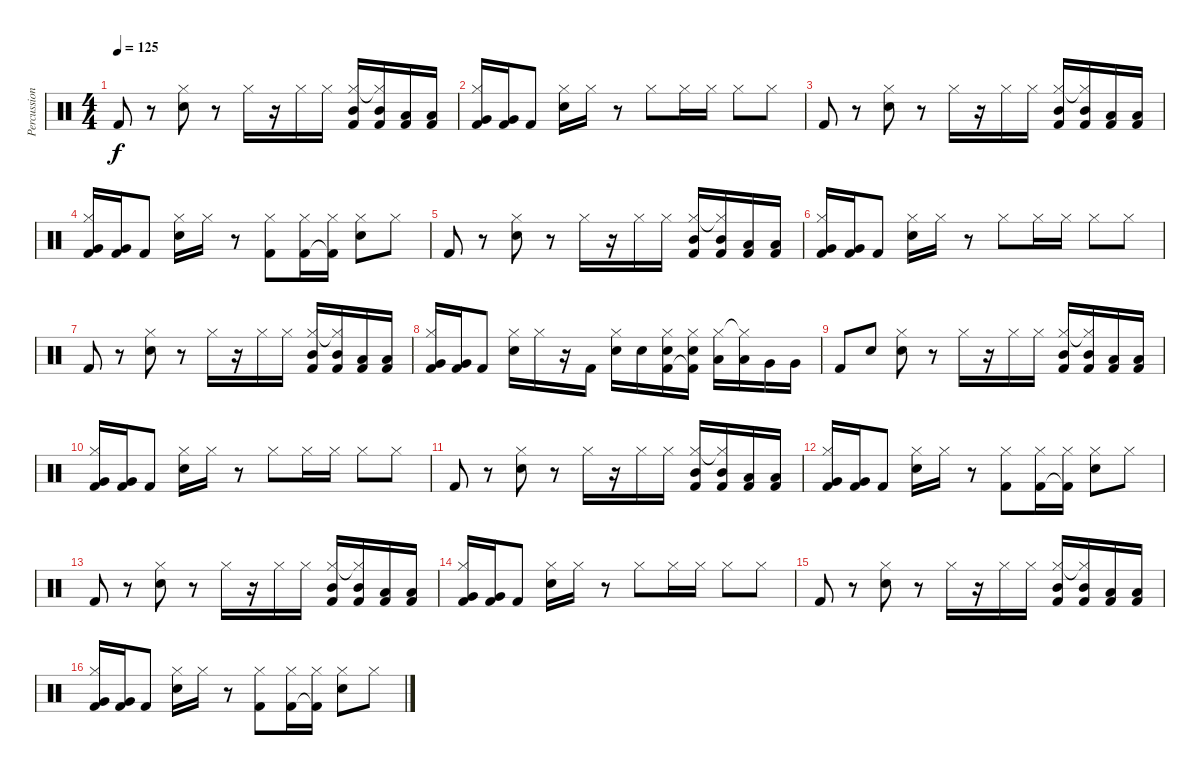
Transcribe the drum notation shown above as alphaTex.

\track ("Percussion" "Percussion") {instrument percussion}
\staff {score}
\articulation defaults
\ts (4 4)
\tempo 125
\clef neutral
\ks c "Kick (hit) 2".8{dy f}
r.8 ("Hi-Hat (closed)" "Electric Snare (hit)").8 r.8 "Hi-Hat (closed)".16 r.16 "Hi-Hat (closed)".16 "Hi-Hat (closed)".16 ("Hi-Hat (closed)" "Mid Tom (hit)" "Kick (hit) 2").16 ("Hi-Hat (closed)"{t} "Mid Tom (hit)" "Kick (hit) 2").16 ("Low Tom (hit)" "Kick (hit) 2").16 ("Low Tom (hit)" "Kick (hit) 2").16 |
("Hi-Hat (closed)" "Very Low Tom (hit)" "Kick (hit) 2").16 ("Very Low Tom (hit)" "Kick (hit) 2").16 "Kick (hit) 2".8 ("Hi-Hat (closed)" "Electric Snare (hit)").16 "Hi-Hat (closed)".16 r.8 "Hi-Hat (closed)".8 "Hi-Hat (closed)".16 "Hi-Hat (closed)".16 "Hi-Hat (closed)".8 "Hi-Hat (closed)".8 |
"Kick (hit) 2".8 r.8 ("Hi-Hat (closed)" "Electric Snare (hit)").8 r.8 "Hi-Hat (closed)".16 r.16 "Hi-Hat (closed)".16 "Hi-Hat (closed)".16 ("Hi-Hat (closed)" "Mid Tom (hit)" "Kick (hit) 2").16 ("Hi-Hat (closed)"{t} "Mid Tom (hit)" "Kick (hit) 2").16 ("Low Tom (hit)" "Kick (hit) 2").16 ("Low Tom (hit)" "Kick (hit) 2").16 |
("Hi-Hat (closed)" "Very Low Tom (hit)" "Kick (hit) 2").16 ("Very Low Tom (hit)" "Kick (hit) 2").16 "Kick (hit) 2".8 ("Hi-Hat (closed)" "Electric Snare (hit)").16 "Hi-Hat (closed)".16 r.8 ("Hi-Hat (closed)" "Kick (hit) 2").8 ("Hi-Hat (closed)" "Kick (hit) 2").16 ("Hi-Hat (closed)" "Kick (hit) 2"{t}).16 ("Hi-Hat (closed)" "Electric Snare (hit)").8 "Hi-Hat (closed)".8 |
"Kick (hit) 2".8 r.8 ("Hi-Hat (closed)" "Electric Snare (hit)").8 r.8 "Hi-Hat (closed)".16 r.16 "Hi-Hat (closed)".16 "Hi-Hat (closed)".16 ("Hi-Hat (closed)" "Mid Tom (hit)" "Kick (hit) 2").16 ("Hi-Hat (closed)"{t} "Mid Tom (hit)" "Kick (hit) 2").16 ("Low Tom (hit)" "Kick (hit) 2").16 ("Low Tom (hit)" "Kick (hit) 2").16 |
("Hi-Hat (closed)" "Very Low Tom (hit)" "Kick (hit) 2").16 ("Very Low Tom (hit)" "Kick (hit) 2").16 "Kick (hit) 2".8 ("Hi-Hat (closed)" "Electric Snare (hit)").16 "Hi-Hat (closed)".16 r.8 "Hi-Hat (closed)".8 "Hi-Hat (closed)".16 "Hi-Hat (closed)".16 "Hi-Hat (closed)".8 "Hi-Hat (closed)".8 |
"Kick (hit) 2".8 r.8 ("Hi-Hat (closed)" "Electric Snare (hit)").8 r.8 "Hi-Hat (closed)".16 r.16 "Hi-Hat (closed)".16 "Hi-Hat (closed)".16 ("Hi-Hat (closed)" "Mid Tom (hit)" "Kick (hit) 2").16 ("Hi-Hat (closed)"{t} "Mid Tom (hit)" "Kick (hit) 2").16 ("Low Tom (hit)" "Kick (hit) 2").16 ("Low Tom (hit)" "Kick (hit) 2").16 |
("Hi-Hat (closed)" "Very Low Tom (hit)" "Kick (hit) 2").16 ("Very Low Tom (hit)" "Kick (hit) 2").16 "Kick (hit) 2".8 ("Hi-Hat (closed)" "Electric Snare (hit)").16 "Hi-Hat (closed)".16 r.16 "Kick (hit) 2".16 ("Hi-Hat (closed)" "Snare (hit) 2").16 "Snare (hit) 2".16 ("Hi-Hat (closed)" "Snare (hit) 2" "Kick (hit) 2").16 ("Hi-Hat (closed)" "Snare (hit) 2" "Kick (hit) 2"{t}).16 ("Hi-Hat (closed)" "Low Tom (hit)").16 ("Hi-Hat (closed)"{t} "Low Tom (hit)").16 "Very Low Tom (hit)".16 "Very Low Tom (hit)".16 |
"Kick (hit) 2".8 "Electric Snare (hit)".8 ("Hi-Hat (closed)" "Electric Snare (hit)").8 r.8 "Hi-Hat (closed)".16 r.16 "Hi-Hat (closed)".16 "Hi-Hat (closed)".16 ("Hi-Hat (closed)" "Mid Tom (hit)" "Kick (hit) 2").16 ("Hi-Hat (closed)"{t} "Mid Tom (hit)" "Kick (hit) 2").16 ("Low Tom (hit)" "Kick (hit) 2").16 ("Low Tom (hit)" "Kick (hit) 2").16 |
("Hi-Hat (closed)" "Very Low Tom (hit)" "Kick (hit) 2").16 ("Very Low Tom (hit)" "Kick (hit) 2").16 "Kick (hit) 2".8 ("Hi-Hat (closed)" "Electric Snare (hit)").16 "Hi-Hat (closed)".16 r.8 "Hi-Hat (closed)".8 "Hi-Hat (closed)".16 "Hi-Hat (closed)".16 "Hi-Hat (closed)".8 "Hi-Hat (closed)".8 |
"Kick (hit) 2".8 r.8 ("Hi-Hat (closed)" "Electric Snare (hit)").8 r.8 "Hi-Hat (closed)".16 r.16 "Hi-Hat (closed)".16 "Hi-Hat (closed)".16 ("Hi-Hat (closed)" "Mid Tom (hit)" "Kick (hit) 2").16 ("Hi-Hat (closed)"{t} "Mid Tom (hit)" "Kick (hit) 2").16 ("Low Tom (hit)" "Kick (hit) 2").16 ("Low Tom (hit)" "Kick (hit) 2").16 |
("Hi-Hat (closed)" "Very Low Tom (hit)" "Kick (hit) 2").16 ("Very Low Tom (hit)" "Kick (hit) 2").16 "Kick (hit) 2".8 ("Hi-Hat (closed)" "Electric Snare (hit)").16 "Hi-Hat (closed)".16 r.8 ("Hi-Hat (closed)" "Kick (hit) 2").8 ("Hi-Hat (closed)" "Kick (hit) 2").16 ("Hi-Hat (closed)" "Kick (hit) 2"{t}).16 ("Hi-Hat (closed)" "Electric Snare (hit)").8 "Hi-Hat (closed)".8 |
"Kick (hit) 2".8 r.8 ("Hi-Hat (closed)" "Electric Snare (hit)").8 r.8 "Hi-Hat (closed)".16 r.16 "Hi-Hat (closed)".16 "Hi-Hat (closed)".16 ("Hi-Hat (closed)" "Mid Tom (hit)" "Kick (hit) 2").16 ("Hi-Hat (closed)"{t} "Mid Tom (hit)" "Kick (hit) 2").16 ("Low Tom (hit)" "Kick (hit) 2").16 ("Low Tom (hit)" "Kick (hit) 2").16 |
("Hi-Hat (closed)" "Very Low Tom (hit)" "Kick (hit) 2").16 ("Very Low Tom (hit)" "Kick (hit) 2").16 "Kick (hit) 2".8 ("Hi-Hat (closed)" "Electric Snare (hit)").16 "Hi-Hat (closed)".16 r.8 "Hi-Hat (closed)".8 "Hi-Hat (closed)".16 "Hi-Hat (closed)".16 "Hi-Hat (closed)".8 "Hi-Hat (closed)".8 |
"Kick (hit) 2".8 r.8 ("Hi-Hat (closed)" "Electric Snare (hit)").8 r.8 "Hi-Hat (closed)".16 r.16 "Hi-Hat (closed)".16 "Hi-Hat (closed)".16 ("Hi-Hat (closed)" "Mid Tom (hit)" "Kick (hit) 2").16 ("Hi-Hat (closed)"{t} "Mid Tom (hit)" "Kick (hit) 2").16 ("Low Tom (hit)" "Kick (hit) 2").16 ("Low Tom (hit)" "Kick (hit) 2").16 |
("Hi-Hat (closed)" "Very Low Tom (hit)" "Kick (hit) 2").16 ("Very Low Tom (hit)" "Kick (hit) 2").16 "Kick (hit) 2".8 ("Hi-Hat (closed)" "Electric Snare (hit)").16 "Hi-Hat (closed)".16 r.8 ("Hi-Hat (closed)" "Kick (hit) 2").8 ("Hi-Hat (closed)" "Kick (hit) 2").16 ("Hi-Hat (closed)" "Kick (hit) 2"{t}).16 ("Hi-Hat (closed)" "Electric Snare (hit)").8 "Hi-Hat (closed)".8
